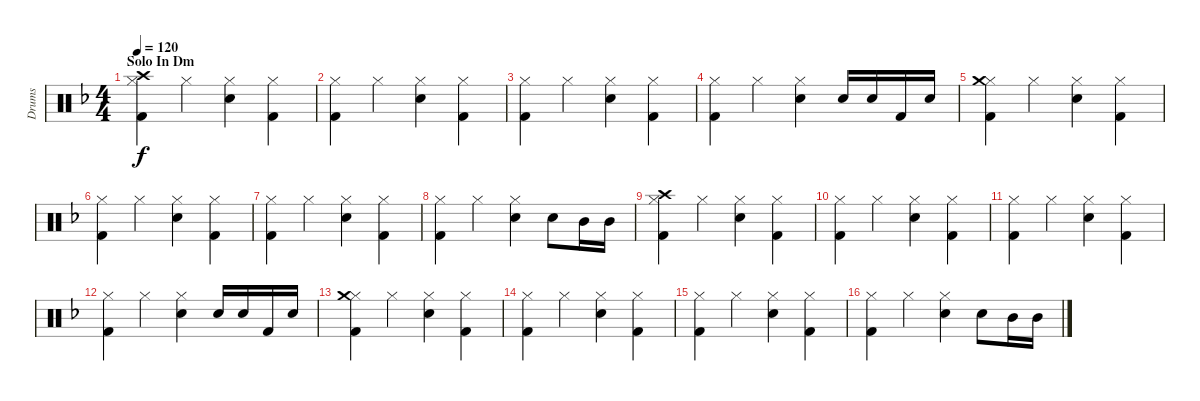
\track ("Drums" "Drums") {instrument percussion}
\staff {score}
\articulation defaults
\ts (4 4)
\section ("" "Solo In Dm")
\tempo 120
\clef neutral
\ks dminor
("Hi-Hat (closed)" "Crash high (hit)" "Kick (hit) 2").4{dy f} "Hi-Hat (closed)".4 ("Hi-Hat (closed)" "Electric Snare (hit)").4 ("Hi-Hat (closed)" "Kick (hit) 2").4 |
("Hi-Hat (closed)" "Kick (hit) 2").4 "Hi-Hat (closed)".4 ("Hi-Hat (closed)" "Electric Snare (hit)").4 ("Hi-Hat (closed)" "Kick (hit) 2").4 |
("Hi-Hat (closed)" "Kick (hit) 2").4 "Hi-Hat (closed)".4 ("Hi-Hat (closed)" "Electric Snare (hit)").4 ("Hi-Hat (closed)" "Kick (hit) 2").4 |
("Hi-Hat (closed)" "Kick (hit) 2").4 "Hi-Hat (closed)".4 ("Hi-Hat (closed)" "Electric Snare (hit)").4 "Snare (hit) 2".16 "Snare (hit) 2".16 "Kick (hit) 2".16 "Snare (hit) 2".16 |
("Hi-Hat (closed)" "Crash medium (hit)" "Kick (hit) 2").4 "Hi-Hat (closed)".4 ("Hi-Hat (closed)" "Electric Snare (hit)").4 ("Hi-Hat (closed)" "Kick (hit) 2").4 |
("Hi-Hat (closed)" "Kick (hit) 2").4 "Hi-Hat (closed)".4 ("Hi-Hat (closed)" "Electric Snare (hit)").4 ("Hi-Hat (closed)" "Kick (hit) 2").4 |
("Hi-Hat (closed)" "Kick (hit) 2").4 "Hi-Hat (closed)".4 ("Hi-Hat (closed)" "Electric Snare (hit)").4 ("Hi-Hat (closed)" "Kick (hit) 2").4 |
("Hi-Hat (closed)" "Kick (hit) 2").4 "Hi-Hat (closed)".4 ("Hi-Hat (closed)" "Electric Snare (hit)").4 "Snare (hit) 2".8 "Mid Tom (hit)".16 "Mid Tom (hit)".16 |
("Hi-Hat (closed)" "Crash high (hit)" "Kick (hit) 2").4 "Hi-Hat (closed)".4 ("Hi-Hat (closed)" "Electric Snare (hit)").4 ("Hi-Hat (closed)" "Kick (hit) 2").4 |
("Hi-Hat (closed)" "Kick (hit) 2").4 "Hi-Hat (closed)".4 ("Hi-Hat (closed)" "Electric Snare (hit)").4 ("Hi-Hat (closed)" "Kick (hit) 2").4 |
("Hi-Hat (closed)" "Kick (hit) 2").4 "Hi-Hat (closed)".4 ("Hi-Hat (closed)" "Electric Snare (hit)").4 ("Hi-Hat (closed)" "Kick (hit) 2").4 |
("Hi-Hat (closed)" "Kick (hit) 2").4 "Hi-Hat (closed)".4 ("Hi-Hat (closed)" "Electric Snare (hit)").4 "Snare (hit) 2".16 "Snare (hit) 2".16 "Kick (hit) 2".16 "Snare (hit) 2".16 |
("Hi-Hat (closed)" "Crash medium (hit)" "Kick (hit) 2").4 "Hi-Hat (closed)".4 ("Hi-Hat (closed)" "Electric Snare (hit)").4 ("Hi-Hat (closed)" "Kick (hit) 2").4 |
("Hi-Hat (closed)" "Kick (hit) 2").4 "Hi-Hat (closed)".4 ("Hi-Hat (closed)" "Electric Snare (hit)").4 ("Hi-Hat (closed)" "Kick (hit) 2").4 |
("Hi-Hat (closed)" "Kick (hit) 2").4 "Hi-Hat (closed)".4 ("Hi-Hat (closed)" "Electric Snare (hit)").4 ("Hi-Hat (closed)" "Kick (hit) 2").4 |
("Hi-Hat (closed)" "Kick (hit) 2").4 "Hi-Hat (closed)".4 ("Hi-Hat (closed)" "Electric Snare (hit)").4 "Snare (hit) 2".8 "Mid Tom (hit)".16 "Mid Tom (hit)".16
